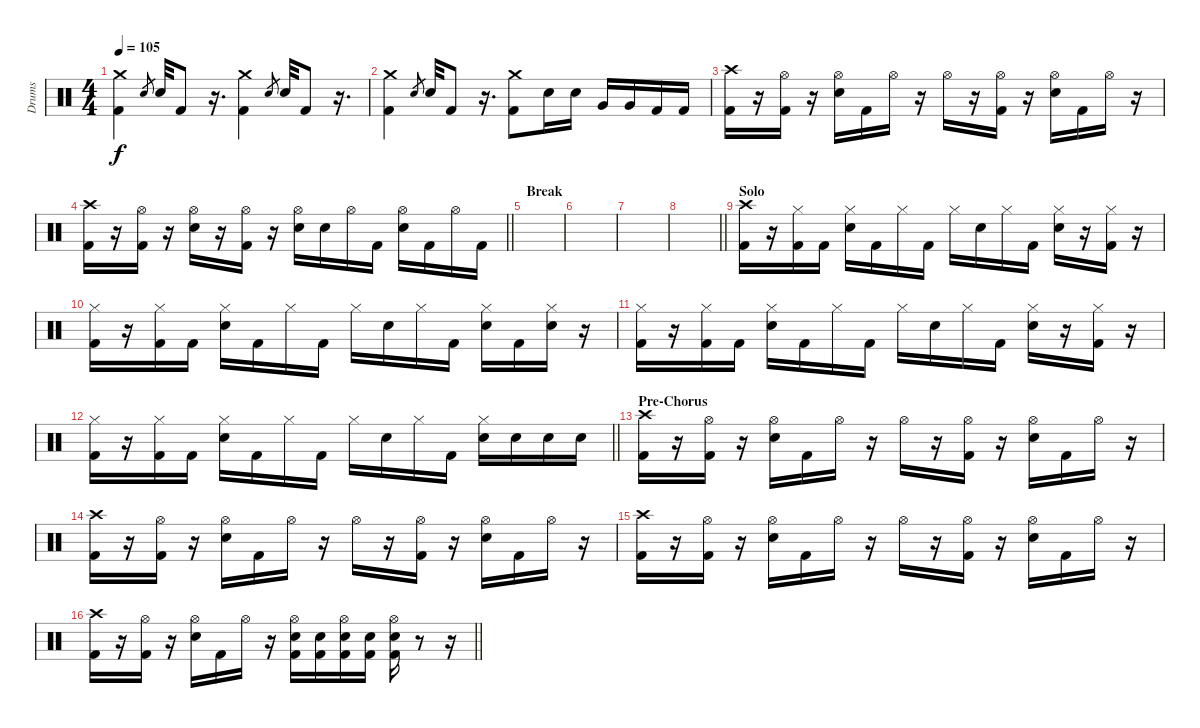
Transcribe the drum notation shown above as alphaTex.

\track ("Drums" "Drums") {instrument percussion}
\staff {score}
\articulation defaults
\ts (4 4)
\tempo 105
\clef neutral
\ks c
("Crash medium (hit)" "Kick (hit) 2").4{dy f} "Electric Snare (hit)".8{gr} "Electric Snare (hit)".32 "Kick (hit) 2".8 r.16{d} ("Crash medium (hit)" "Kick (hit) 2").4 "Electric Snare (hit)".8{gr} "Electric Snare (hit)".32 "Kick (hit) 2".8 r.16{d} |
("Crash medium (hit)" "Kick (hit) 2").4 "Electric Snare (hit)".8{gr} "Electric Snare (hit)".32 "Kick (hit) 2".8 r.16{d} ("Crash medium (hit)" "Kick (hit) 2").8 "Electric Snare (hit)".16 "Electric Snare (hit)".16 "Very Low Tom (hit)".16 "Very Low Tom (hit)".16 "Kick (hit) 2".16 "Kick (hit) 2".16 |
("Crash high (hit)" "Kick (hit) 2").16 r.16 ("Hi-Hat (open)" "Kick (hit) 2").16 r.16 ("Hi-Hat (open)" "Electric Snare (hit)").16 "Kick (hit) 2".16 "Hi-Hat (open)".16 r.16 "Hi-Hat (open)".16 r.16 ("Hi-Hat (open)" "Kick (hit) 2").16 r.16 ("Hi-Hat (open)" "Electric Snare (hit)").16 "Kick (hit) 2".16 "Hi-Hat (open)".16 r.16 |
\barLineRight lightlight
("Crash high (hit)" "Kick (hit) 2").16 r.16 ("Hi-Hat (open)" "Kick (hit) 2").16 r.16 ("Hi-Hat (open)" "Electric Snare (hit)").16 r.16 ("Hi-Hat (open)" "Kick (hit) 2").16 r.16 ("Hi-Hat (open)" "Electric Snare (hit)").16 "Electric Snare (hit)".16 "Hi-Hat (open)".16 "Kick (hit) 2".16 ("Hi-Hat (open)" "Electric Snare (hit)").16 "Kick (hit) 2".16 "Hi-Hat (open)".16 "Kick (hit) 2".16 |
\section ("" "Break")
|
|
|
\barLineRight lightlight
|
\section ("" "Solo")
("Crash high (hit)" "Kick (hit) 2").16 r.16 ("Hi-Hat (closed)" "Kick (hit) 2").16 "Kick (hit) 2".16 ("Hi-Hat (closed)" "Electric Snare (hit)").16 "Kick (hit) 2".16 "Hi-Hat (closed)".16 "Kick (hit) 2".16 "Hi-Hat (closed)".16 "Electric Snare (hit)".16 "Hi-Hat (closed)".16 "Kick (hit) 2".16 ("Hi-Hat (closed)" "Electric Snare (hit)").16 r.16 ("Hi-Hat (closed)" "Kick (hit) 2").16 r.16 |
("Hi-Hat (closed)" "Kick (hit) 2").16 r.16 ("Hi-Hat (closed)" "Kick (hit) 2").16 "Kick (hit) 2".16 ("Hi-Hat (closed)" "Electric Snare (hit)").16 "Kick (hit) 2".16 "Hi-Hat (closed)".16 "Kick (hit) 2".16 "Hi-Hat (closed)".16 "Electric Snare (hit)".16 "Hi-Hat (closed)".16 "Kick (hit) 2".16 ("Hi-Hat (closed)" "Electric Snare (hit)").16 "Kick (hit) 2".16 ("Hi-Hat (closed)" "Electric Snare (hit)").16 r.16 |
("Hi-Hat (closed)" "Kick (hit) 2").16 r.16 ("Hi-Hat (closed)" "Kick (hit) 2").16 "Kick (hit) 2".16 ("Hi-Hat (closed)" "Electric Snare (hit)").16 "Kick (hit) 2".16 "Hi-Hat (closed)".16 "Kick (hit) 2".16 "Hi-Hat (closed)".16 "Electric Snare (hit)".16 "Hi-Hat (closed)".16 "Kick (hit) 2".16 ("Hi-Hat (closed)" "Electric Snare (hit)").16 r.16 ("Hi-Hat (closed)" "Kick (hit) 2").16 r.16 |
\barLineRight lightlight
("Hi-Hat (closed)" "Kick (hit) 2").16 r.16 ("Hi-Hat (closed)" "Kick (hit) 2").16 "Kick (hit) 2".16 ("Hi-Hat (closed)" "Electric Snare (hit)").16 "Kick (hit) 2".16 "Hi-Hat (closed)".16 "Kick (hit) 2".16 "Hi-Hat (closed)".16 "Electric Snare (hit)".16 "Hi-Hat (closed)".16 "Kick (hit) 2".16 ("Hi-Hat (closed)" "Electric Snare (hit)").16 "Electric Snare (hit)".16 "Electric Snare (hit)".16 "Electric Snare (hit)".16 |
\section ("" "Pre-Chorus")
("Crash high (hit)" "Kick (hit) 2").16 r.16 ("Hi-Hat (open)" "Kick (hit) 2").16 r.16 ("Hi-Hat (open)" "Electric Snare (hit)").16 "Kick (hit) 2".16 "Hi-Hat (open)".16 r.16 "Hi-Hat (open)".16 r.16 ("Hi-Hat (open)" "Kick (hit) 2").16 r.16 ("Hi-Hat (open)" "Electric Snare (hit)").16 "Kick (hit) 2".16 "Hi-Hat (open)".16 r.16 |
("Crash high (hit)" "Kick (hit) 2").16 r.16 ("Hi-Hat (open)" "Kick (hit) 2").16 r.16 ("Hi-Hat (open)" "Electric Snare (hit)").16 "Kick (hit) 2".16 "Hi-Hat (open)".16 r.16 "Hi-Hat (open)".16 r.16 ("Hi-Hat (open)" "Kick (hit) 2").16 r.16 ("Hi-Hat (open)" "Electric Snare (hit)").16 "Kick (hit) 2".16 "Hi-Hat (open)".16 r.16 |
("Crash high (hit)" "Kick (hit) 2").16 r.16 ("Hi-Hat (open)" "Kick (hit) 2").16 r.16 ("Hi-Hat (open)" "Electric Snare (hit)").16 "Kick (hit) 2".16 "Hi-Hat (open)".16 r.16 "Hi-Hat (open)".16 r.16 ("Hi-Hat (open)" "Kick (hit) 2").16 r.16 ("Hi-Hat (open)" "Electric Snare (hit)").16 "Kick (hit) 2".16 "Hi-Hat (open)".16 r.16 |
\barLineRight lightlight
("Crash high (hit)" "Kick (hit) 2").16 r.16 ("Hi-Hat (open)" "Kick (hit) 2").16 r.16 ("Hi-Hat (open)" "Electric Snare (hit)").16 "Kick (hit) 2".16 "Hi-Hat (open)".16 r.16 ("Hi-Hat (open)" "Electric Snare (hit)" "Kick (hit) 2").16 ("Electric Snare (hit)" "Kick (hit) 2").16 ("Hi-Hat (open)" "Electric Snare (hit)" "Kick (hit) 2").16 ("Electric Snare (hit)" "Kick (hit) 2").16 ("Hi-Hat (open)" "Electric Snare (hit)" "Kick (hit) 2").16 r.8 r.16
